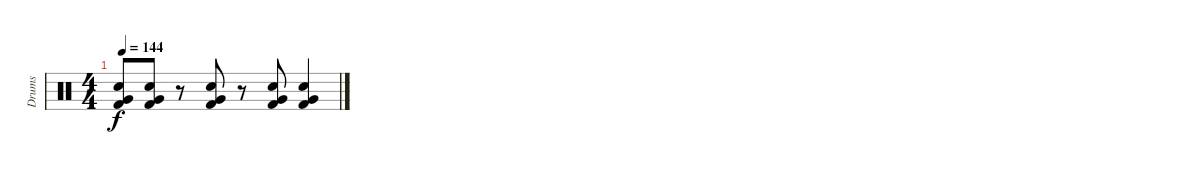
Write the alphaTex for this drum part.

\track ("Drums" "Drums") {instrument percussion}
\staff {score}
\articulation defaults
\ts (4 4)
\tempo 144
\clef neutral
\ks c
("Electric Snare (hit)" "Very Low Tom (hit)" "Kick (hit) 2").8{dy f} ("Electric Snare (hit)" "Very Low Tom (hit)" "Kick (hit) 2").8 r.8 ("Electric Snare (hit)" "Very Low Tom (hit)" "Kick (hit) 2").8 r.8 ("Electric Snare (hit)" "Very Low Tom (hit)" "Kick (hit) 2").8 ("Electric Snare (hit)" "Very Low Tom (hit)" "Kick (hit) 2").4
